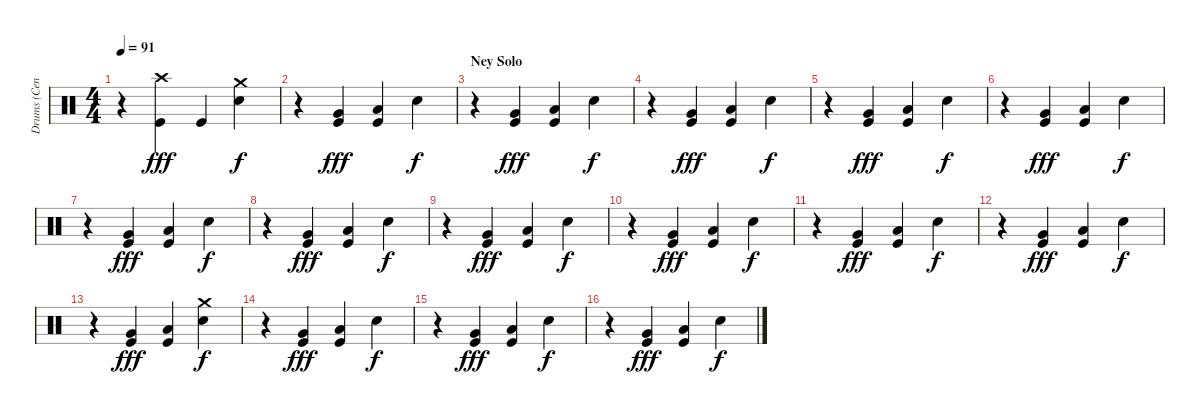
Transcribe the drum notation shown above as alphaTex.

\track ("Drums (Cenk)" "Drums (Cen") {instrument percussion}
\staff {score}
\articulation defaults
\ts (4 4)
\tempo 91
\clef neutral
\ks c
r.4{dy f} ("Crash high (hit)" "Kick (hit)").4{dy fff} "Kick (hit)".4 ("Crash medium (hit)" "Snare (hit) 2").4{dy f} |
r.4 ("Very Low Tom (hit)" "Kick (hit)").4{dy fff} ("Low Floor Tom (hit)" "Kick (hit)").4 "Snare (hit) 2".4{dy f} |
\section ("" "Ney Solo")
r.4 ("Very Low Tom (hit)" "Kick (hit)").4{dy fff} ("Low Floor Tom (hit)" "Kick (hit)").4 "Snare (hit) 2".4{dy f} |
r.4 ("Very Low Tom (hit)" "Kick (hit)").4{dy fff} ("Low Floor Tom (hit)" "Kick (hit)").4 "Snare (hit) 2".4{dy f} |
r.4 ("Very Low Tom (hit)" "Kick (hit)").4{dy fff} ("Low Floor Tom (hit)" "Kick (hit)").4 "Snare (hit) 2".4{dy f} |
r.4 ("Very Low Tom (hit)" "Kick (hit)").4{dy fff} ("Low Floor Tom (hit)" "Kick (hit)").4 "Snare (hit) 2".4{dy f} |
r.4 ("Very Low Tom (hit)" "Kick (hit)").4{dy fff} ("Low Floor Tom (hit)" "Kick (hit)").4 "Snare (hit) 2".4{dy f} |
r.4 ("Very Low Tom (hit)" "Kick (hit)").4{dy fff} ("Low Floor Tom (hit)" "Kick (hit)").4 "Snare (hit) 2".4{dy f} |
r.4 ("Very Low Tom (hit)" "Kick (hit)").4{dy fff} ("Low Floor Tom (hit)" "Kick (hit)").4 "Snare (hit) 2".4{dy f} |
r.4 ("Very Low Tom (hit)" "Kick (hit)").4{dy fff} ("Low Floor Tom (hit)" "Kick (hit)").4 "Snare (hit) 2".4{dy f} |
r.4 ("Very Low Tom (hit)" "Kick (hit)").4{dy fff} ("Low Floor Tom (hit)" "Kick (hit)").4 "Snare (hit) 2".4{dy f} |
r.4 ("Very Low Tom (hit)" "Kick (hit)").4{dy fff} ("Low Floor Tom (hit)" "Kick (hit)").4 "Snare (hit) 2".4{dy f} |
r.4 ("Very Low Tom (hit)" "Kick (hit)").4{dy fff} ("Low Floor Tom (hit)" "Kick (hit)").4 ("Crash medium (hit)" "Snare (hit) 2").4{dy f} |
r.4 ("Very Low Tom (hit)" "Kick (hit)").4{dy fff} ("Low Floor Tom (hit)" "Kick (hit)").4 "Snare (hit) 2".4{dy f} |
r.4 ("Very Low Tom (hit)" "Kick (hit)").4{dy fff} ("Low Floor Tom (hit)" "Kick (hit)").4 "Snare (hit) 2".4{dy f} |
r.4 ("Very Low Tom (hit)" "Kick (hit)").4{dy fff} ("Low Floor Tom (hit)" "Kick (hit)").4 "Snare (hit) 2".4{dy f}
